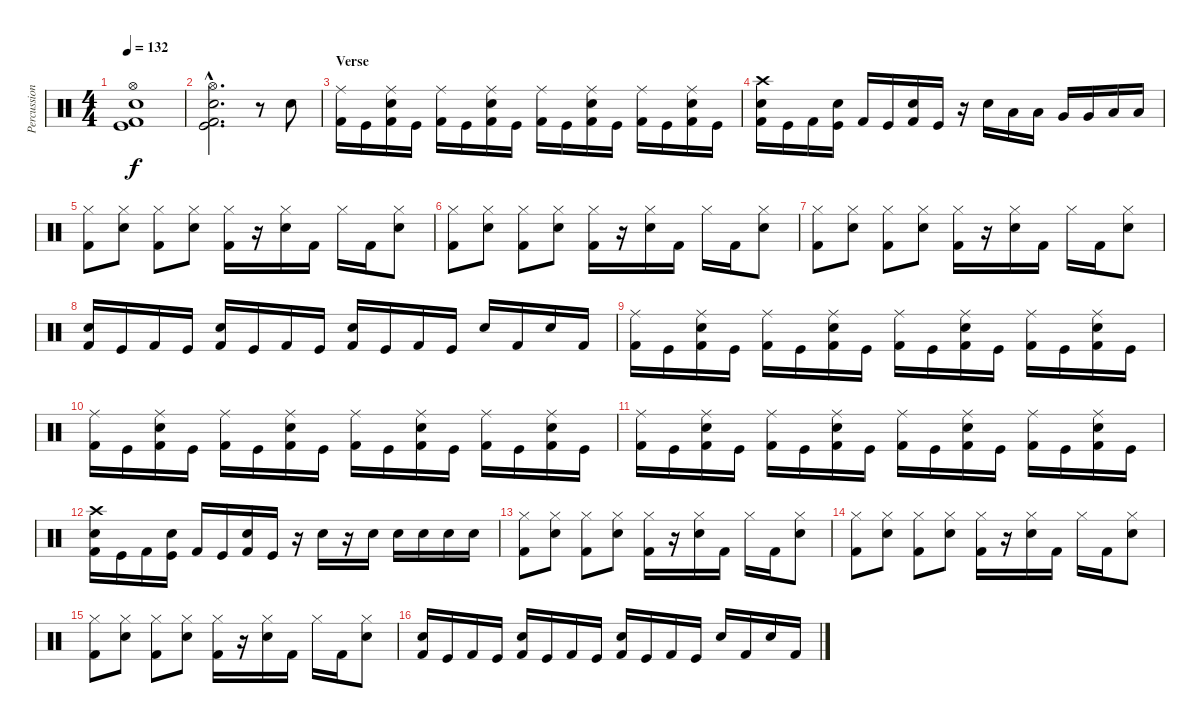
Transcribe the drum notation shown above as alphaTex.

\track ("Percussion" "Percussion") {instrument percussion}
\staff {score}
\articulation defaults
\ts (4 4)
\tempo 132
\clef neutral
\ks c
("Kick (hit) 2" "Kick (hit)" "Electric Snare (hit)" "Hi-Hat (open)").1{dy f} |
("Kick (hit) 2"{hac} "Kick (hit)"{hac} "Electric Snare (hit)"{hac} "Hi-Hat (open)"{hac}).2{d} r.8 "Electric Snare (hit)".8 |
\section ("" "Verse")
("Kick (hit) 2" "Ride (middle)").16 "Kick (hit)".16 ("Kick (hit) 2" "Electric Snare (hit)" "Ride (middle)").16 "Kick (hit)".16 ("Kick (hit) 2" "Ride (middle)").16 "Kick (hit)".16 ("Kick (hit) 2" "Electric Snare (hit)" "Ride (middle)").16 "Kick (hit)".16 ("Kick (hit) 2" "Ride (middle)").16 "Kick (hit)".16 ("Kick (hit) 2" "Electric Snare (hit)" "Ride (middle)").16 "Kick (hit)".16 ("Kick (hit) 2" "Ride (middle)").16 "Kick (hit)".16 ("Kick (hit) 2" "Electric Snare (hit)" "Ride (middle)").16 "Kick (hit)".16 |
("Kick (hit) 2" "Electric Snare (hit)" "Crash high (hit)").16 "Kick (hit)".16 "Kick (hit) 2".16 ("Kick (hit)" "Electric Snare (hit)").16 "Kick (hit) 2".16 "Kick (hit)".16 ("Kick (hit) 2" "Electric Snare (hit)").16 "Kick (hit)".16 r.16 "Electric Snare (hit)".16 "Low Tom (hit)".16 "Low Tom (hit)".16 "Very Low Tom (hit)".16 "Very Low Tom (hit)".16 "Low Floor Tom (hit)".16 "Low Floor Tom (hit)".16 |
("Kick (hit) 2" "Hi-Hat (closed)").8 ("Electric Snare (hit)" "Hi-Hat (closed)").8 ("Kick (hit) 2" "Hi-Hat (closed)").8 ("Electric Snare (hit)" "Hi-Hat (closed)").8 ("Kick (hit) 2" "Hi-Hat (closed)").16 r.16 ("Electric Snare (hit)" "Hi-Hat (closed)").16 "Kick (hit) 2".16 "Hi-Hat (closed)".16 "Kick (hit) 2".16 ("Electric Snare (hit)" "Hi-Hat (closed)").8 |
("Kick (hit) 2" "Hi-Hat (closed)").8 ("Electric Snare (hit)" "Hi-Hat (closed)").8 ("Kick (hit) 2" "Hi-Hat (closed)").8 ("Electric Snare (hit)" "Hi-Hat (closed)").8 ("Kick (hit) 2" "Hi-Hat (closed)").16 r.16 ("Electric Snare (hit)" "Hi-Hat (closed)").16 "Kick (hit) 2".16 "Hi-Hat (closed)".16 "Kick (hit) 2".16 ("Electric Snare (hit)" "Hi-Hat (closed)").8 |
("Kick (hit) 2" "Hi-Hat (closed)").8 ("Electric Snare (hit)" "Hi-Hat (closed)").8 ("Kick (hit) 2" "Hi-Hat (closed)").8 ("Electric Snare (hit)" "Hi-Hat (closed)").8 ("Kick (hit) 2" "Hi-Hat (closed)").16 r.16 ("Electric Snare (hit)" "Hi-Hat (closed)").16 "Kick (hit) 2".16 "Hi-Hat (closed)".16 "Kick (hit) 2".16 ("Electric Snare (hit)" "Hi-Hat (closed)").8 |
("Kick (hit) 2" "Electric Snare (hit)").16 "Kick (hit)".16 "Kick (hit) 2".16 "Kick (hit)".16 ("Kick (hit) 2" "Electric Snare (hit)").16 "Kick (hit)".16 "Kick (hit) 2".16 "Kick (hit)".16 ("Kick (hit) 2" "Electric Snare (hit)").16 "Kick (hit)".16 "Kick (hit) 2".16 "Kick (hit)".16 "Electric Snare (hit)".16 "Kick (hit) 2".16 "Electric Snare (hit)".16 "Kick (hit) 2".16 |
("Kick (hit) 2" "Ride (middle)").16 "Kick (hit)".16 ("Kick (hit) 2" "Electric Snare (hit)" "Ride (middle)").16 "Kick (hit)".16 ("Kick (hit) 2" "Ride (middle)").16 "Kick (hit)".16 ("Kick (hit) 2" "Electric Snare (hit)" "Ride (middle)").16 "Kick (hit)".16 ("Kick (hit) 2" "Ride (middle)").16 "Kick (hit)".16 ("Kick (hit) 2" "Electric Snare (hit)" "Ride (middle)").16 "Kick (hit)".16 ("Kick (hit) 2" "Ride (middle)").16 "Kick (hit)".16 ("Kick (hit) 2" "Electric Snare (hit)" "Ride (middle)").16 "Kick (hit)".16 |
("Kick (hit) 2" "Ride (middle)").16 "Kick (hit)".16 ("Kick (hit) 2" "Electric Snare (hit)" "Ride (middle)").16 "Kick (hit)".16 ("Kick (hit) 2" "Ride (middle)").16 "Kick (hit)".16 ("Kick (hit) 2" "Electric Snare (hit)" "Ride (middle)").16 "Kick (hit)".16 ("Kick (hit) 2" "Ride (middle)").16 "Kick (hit)".16 ("Kick (hit) 2" "Electric Snare (hit)" "Ride (middle)").16 "Kick (hit)".16 ("Kick (hit) 2" "Ride (middle)").16 "Kick (hit)".16 ("Kick (hit) 2" "Electric Snare (hit)" "Ride (middle)").16 "Kick (hit)".16 |
("Kick (hit) 2" "Ride (middle)").16 "Kick (hit)".16 ("Kick (hit) 2" "Electric Snare (hit)" "Ride (middle)").16 "Kick (hit)".16 ("Kick (hit) 2" "Ride (middle)").16 "Kick (hit)".16 ("Kick (hit) 2" "Electric Snare (hit)" "Ride (middle)").16 "Kick (hit)".16 ("Kick (hit) 2" "Ride (middle)").16 "Kick (hit)".16 ("Kick (hit) 2" "Electric Snare (hit)" "Ride (middle)").16 "Kick (hit)".16 ("Kick (hit) 2" "Ride (middle)").16 "Kick (hit)".16 ("Kick (hit) 2" "Electric Snare (hit)" "Ride (middle)").16 "Kick (hit)".16 |
("Kick (hit) 2" "Electric Snare (hit)" "Crash high (hit)").16 "Kick (hit)".16 "Kick (hit) 2".16 ("Kick (hit)" "Electric Snare (hit)").16 "Kick (hit) 2".16 "Kick (hit)".16 ("Kick (hit) 2" "Electric Snare (hit)").16 "Kick (hit)".16 r.16 "Electric Snare (hit)".16 r.16 "Electric Snare (hit)".16 "Electric Snare (hit)".16 "Electric Snare (hit)".16 "Electric Snare (hit)".16 "Electric Snare (hit)".16 |
("Kick (hit) 2" "Hi-Hat (closed)").8 ("Electric Snare (hit)" "Hi-Hat (closed)").8 ("Kick (hit) 2" "Hi-Hat (closed)").8 ("Electric Snare (hit)" "Hi-Hat (closed)").8 ("Kick (hit) 2" "Hi-Hat (closed)").16 r.16 ("Electric Snare (hit)" "Hi-Hat (closed)").16 "Kick (hit) 2".16 "Hi-Hat (closed)".16 "Kick (hit) 2".16 ("Electric Snare (hit)" "Hi-Hat (closed)").8 |
("Kick (hit) 2" "Hi-Hat (closed)").8 ("Electric Snare (hit)" "Hi-Hat (closed)").8 ("Kick (hit) 2" "Hi-Hat (closed)").8 ("Electric Snare (hit)" "Hi-Hat (closed)").8 ("Kick (hit) 2" "Hi-Hat (closed)").16 r.16 ("Electric Snare (hit)" "Hi-Hat (closed)").16 "Kick (hit) 2".16 "Hi-Hat (closed)".16 "Kick (hit) 2".16 ("Electric Snare (hit)" "Hi-Hat (closed)").8 |
("Kick (hit) 2" "Hi-Hat (closed)").8 ("Electric Snare (hit)" "Hi-Hat (closed)").8 ("Kick (hit) 2" "Hi-Hat (closed)").8 ("Electric Snare (hit)" "Hi-Hat (closed)").8 ("Kick (hit) 2" "Hi-Hat (closed)").16 r.16 ("Electric Snare (hit)" "Hi-Hat (closed)").16 "Kick (hit) 2".16 "Hi-Hat (closed)".16 "Kick (hit) 2".16 ("Electric Snare (hit)" "Hi-Hat (closed)").8 |
("Kick (hit) 2" "Electric Snare (hit)").16 "Kick (hit)".16 "Kick (hit) 2".16 "Kick (hit)".16 ("Kick (hit) 2" "Electric Snare (hit)").16 "Kick (hit)".16 "Kick (hit) 2".16 "Kick (hit)".16 ("Kick (hit) 2" "Electric Snare (hit)").16 "Kick (hit)".16 "Kick (hit) 2".16 "Kick (hit)".16 "Electric Snare (hit)".16 "Kick (hit) 2".16 "Electric Snare (hit)".16 "Kick (hit) 2".16
